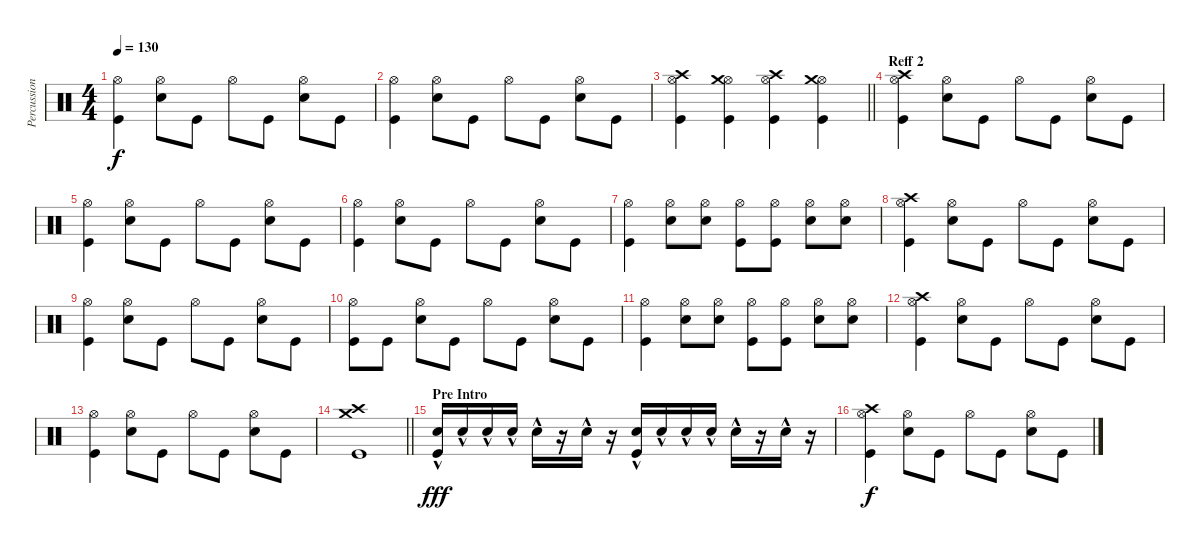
\track ("Percussion 1" "Percussion") {instrument percussion}
\staff {score}
\articulation defaults
\ts (4 4)
\tempo 130
\clef neutral
\ks c
("Hi-Hat (open)" "Kick (hit)").4{dy f} ("Hi-Hat (open)" "Electric Snare (hit)").8 "Kick (hit)".8 "Hi-Hat (open)".8 "Kick (hit)".8 ("Hi-Hat (open)" "Electric Snare (hit)").8 "Kick (hit)".8 |
("Hi-Hat (open)" "Kick (hit)").4 ("Hi-Hat (open)" "Electric Snare (hit)").8 "Kick (hit)".8 "Hi-Hat (open)".8 "Kick (hit)".8 ("Hi-Hat (open)" "Electric Snare (hit)").8 "Kick (hit)".8 |
\barLineRight lightlight
("Hi-Hat (open)" "Crash high (hit)" "Kick (hit)").4 ("Hi-Hat (open)" "Crash medium (hit)" "Kick (hit)").4 ("Hi-Hat (open)" "Crash high (hit)" "Kick (hit)").4 ("Hi-Hat (open)" "Crash medium (hit)" "Kick (hit)").4 |
\section ("" "Reff 2")
("Hi-Hat (open)" "Crash high (hit)" "Kick (hit)").4 ("Hi-Hat (open)" "Electric Snare (hit)").8 "Kick (hit)".8 "Hi-Hat (open)".8 "Kick (hit)".8 ("Hi-Hat (open)" "Electric Snare (hit)").8 "Kick (hit)".8 |
("Hi-Hat (open)" "Kick (hit)").4 ("Hi-Hat (open)" "Electric Snare (hit)").8 "Kick (hit)".8 "Hi-Hat (open)".8 "Kick (hit)".8 ("Hi-Hat (open)" "Electric Snare (hit)").8 "Kick (hit)".8 |
("Hi-Hat (open)" "Kick (hit)").4 ("Hi-Hat (open)" "Electric Snare (hit)").8 "Kick (hit)".8 "Hi-Hat (open)".8 "Kick (hit)".8 ("Hi-Hat (open)" "Electric Snare (hit)").8 "Kick (hit)".8 |
("Hi-Hat (open)" "Kick (hit)").4 ("Hi-Hat (open)" "Electric Snare (hit)").8 ("Hi-Hat (open)" "Electric Snare (hit)").8 ("Hi-Hat (open)" "Kick (hit)").8 ("Hi-Hat (open)" "Kick (hit)").8 ("Hi-Hat (open)" "Electric Snare (hit)").8 ("Hi-Hat (open)" "Electric Snare (hit)").8 |
("Hi-Hat (open)" "Crash high (hit)" "Kick (hit)").4 ("Hi-Hat (open)" "Electric Snare (hit)").8 "Kick (hit)".8 "Hi-Hat (open)".8 "Kick (hit)".8 ("Hi-Hat (open)" "Electric Snare (hit)").8 "Kick (hit)".8 |
("Hi-Hat (open)" "Kick (hit)").4 ("Hi-Hat (open)" "Electric Snare (hit)").8 "Kick (hit)".8 "Hi-Hat (open)".8 "Kick (hit)".8 ("Hi-Hat (open)" "Electric Snare (hit)").8 "Kick (hit)".8 |
("Hi-Hat (open)" "Kick (hit)").8 "Kick (hit)".8 ("Hi-Hat (open)" "Electric Snare (hit)").8 "Kick (hit)".8 "Hi-Hat (open)".8 "Kick (hit)".8 ("Hi-Hat (open)" "Electric Snare (hit)").8 "Kick (hit)".8 |
("Hi-Hat (open)" "Kick (hit)").4 ("Hi-Hat (open)" "Electric Snare (hit)").8 ("Hi-Hat (open)" "Electric Snare (hit)").8 ("Hi-Hat (open)" "Kick (hit)").8 ("Hi-Hat (open)" "Kick (hit)").8 ("Hi-Hat (open)" "Electric Snare (hit)").8 ("Hi-Hat (open)" "Electric Snare (hit)").8 |
("Hi-Hat (open)" "Crash high (hit)" "Kick (hit)").4 ("Hi-Hat (open)" "Electric Snare (hit)").8 "Kick (hit)".8 "Hi-Hat (open)".8 "Kick (hit)".8 ("Hi-Hat (open)" "Electric Snare (hit)").8 "Kick (hit)".8 |
("Hi-Hat (open)" "Kick (hit)").4 ("Hi-Hat (open)" "Electric Snare (hit)").8 "Kick (hit)".8 "Hi-Hat (open)".8 "Kick (hit)".8 ("Hi-Hat (open)" "Electric Snare (hit)").8 "Kick (hit)".8 |
\barLineRight lightlight
("Crash medium (hit)" "Crash high (hit)" "Kick (hit)").1 |
\section ("" "Pre Intro")
("Electric Snare (hit)"{hac} "Kick (hit)"{hac}).16{dy fff} "Electric Snare (hit)"{hac}.16 "Electric Snare (hit)"{hac}.16 "Electric Snare (hit)"{hac}.16 "Electric Snare (hit)"{hac}.16 r.16 "Electric Snare (hit)"{hac}.16 r.16 ("Electric Snare (hit)"{hac} "Kick (hit)"{hac}).16 "Electric Snare (hit)"{hac}.16 "Electric Snare (hit)"{hac}.16 "Electric Snare (hit)"{hac}.16 "Electric Snare (hit)"{hac}.16 r.16 "Electric Snare (hit)"{hac}.16 r.16 |
("Hi-Hat (open)" "Crash high (hit)" "Kick (hit)").4{dy f} ("Hi-Hat (open)" "Electric Snare (hit)").8 "Kick (hit)".8 "Hi-Hat (open)".8 "Kick (hit)".8 ("Hi-Hat (open)" "Electric Snare (hit)").8 "Kick (hit)".8
